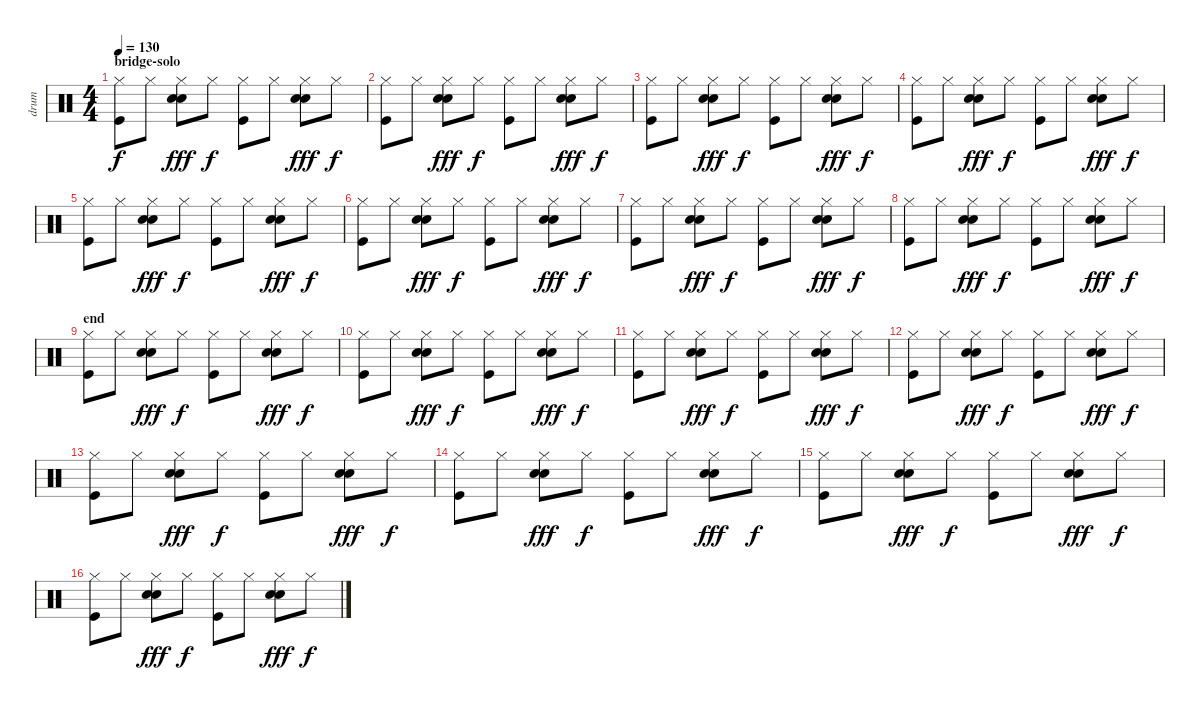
\track ("drum" "drum") {instrument percussion}
\staff {score}
\articulation defaults
\ts (4 4)
\section ("" "bridge-solo")
\tempo 130
\clef neutral
\ks c
("Hi-Hat (closed)" "Kick (hit)").8{dy f} "Hi-Hat (closed)".8 ("Hi-Hat (closed)" "Snare (hit) 2" "Snare (hit) 2").8{dy fff} "Hi-Hat (closed)".8{dy f} ("Hi-Hat (closed)" "Kick (hit)").8 "Hi-Hat (closed)".8 ("Hi-Hat (closed)" "Snare (hit) 2" "Snare (hit) 2").8{dy fff} "Hi-Hat (closed)".8{dy f} |
("Hi-Hat (closed)" "Kick (hit)").8 "Hi-Hat (closed)".8 ("Hi-Hat (closed)" "Snare (hit) 2" "Snare (hit) 2").8{dy fff} "Hi-Hat (closed)".8{dy f} ("Hi-Hat (closed)" "Kick (hit)").8 "Hi-Hat (closed)".8 ("Hi-Hat (closed)" "Snare (hit) 2" "Snare (hit) 2").8{dy fff} "Hi-Hat (closed)".8{dy f} |
("Hi-Hat (closed)" "Kick (hit)").8 "Hi-Hat (closed)".8 ("Hi-Hat (closed)" "Snare (hit) 2" "Snare (hit) 2").8{dy fff} "Hi-Hat (closed)".8{dy f} ("Hi-Hat (closed)" "Kick (hit)").8 "Hi-Hat (closed)".8 ("Hi-Hat (closed)" "Snare (hit) 2" "Snare (hit) 2").8{dy fff} "Hi-Hat (closed)".8{dy f} |
("Hi-Hat (closed)" "Kick (hit)").8 "Hi-Hat (closed)".8 ("Hi-Hat (closed)" "Snare (hit) 2" "Snare (hit) 2").8{dy fff} "Hi-Hat (closed)".8{dy f} ("Hi-Hat (closed)" "Kick (hit)").8 "Hi-Hat (closed)".8 ("Hi-Hat (closed)" "Snare (hit) 2" "Snare (hit) 2").8{dy fff} "Hi-Hat (closed)".8{dy f} |
("Hi-Hat (closed)" "Kick (hit)").8 "Hi-Hat (closed)".8 ("Hi-Hat (closed)" "Snare (hit) 2" "Snare (hit) 2").8{dy fff} "Hi-Hat (closed)".8{dy f} ("Hi-Hat (closed)" "Kick (hit)").8 "Hi-Hat (closed)".8 ("Hi-Hat (closed)" "Snare (hit) 2" "Snare (hit) 2").8{dy fff} "Hi-Hat (closed)".8{dy f} |
("Hi-Hat (closed)" "Kick (hit)").8 "Hi-Hat (closed)".8 ("Hi-Hat (closed)" "Snare (hit) 2" "Snare (hit) 2").8{dy fff} "Hi-Hat (closed)".8{dy f} ("Hi-Hat (closed)" "Kick (hit)").8 "Hi-Hat (closed)".8 ("Hi-Hat (closed)" "Snare (hit) 2" "Snare (hit) 2").8{dy fff} "Hi-Hat (closed)".8{dy f} |
("Hi-Hat (closed)" "Kick (hit)").8 "Hi-Hat (closed)".8 ("Hi-Hat (closed)" "Snare (hit) 2" "Snare (hit) 2").8{dy fff} "Hi-Hat (closed)".8{dy f} ("Hi-Hat (closed)" "Kick (hit)").8 "Hi-Hat (closed)".8 ("Hi-Hat (closed)" "Snare (hit) 2" "Snare (hit) 2").8{dy fff} "Hi-Hat (closed)".8{dy f} |
("Hi-Hat (closed)" "Kick (hit)").8 "Hi-Hat (closed)".8 ("Hi-Hat (closed)" "Snare (hit) 2" "Snare (hit) 2").8{dy fff} "Hi-Hat (closed)".8{dy f} ("Hi-Hat (closed)" "Kick (hit)").8 "Hi-Hat (closed)".8 ("Hi-Hat (closed)" "Snare (hit) 2" "Snare (hit) 2").8{dy fff} "Hi-Hat (closed)".8{dy f} |
\section ("" "end")
("Hi-Hat (closed)" "Kick (hit)").8 "Hi-Hat (closed)".8 ("Hi-Hat (closed)" "Snare (hit) 2" "Snare (hit) 2").8{dy fff} "Hi-Hat (closed)".8{dy f} ("Hi-Hat (closed)" "Kick (hit)").8 "Hi-Hat (closed)".8 ("Hi-Hat (closed)" "Snare (hit) 2" "Snare (hit) 2").8{dy fff} "Hi-Hat (closed)".8{dy f} |
("Hi-Hat (closed)" "Kick (hit)").8 "Hi-Hat (closed)".8 ("Hi-Hat (closed)" "Snare (hit) 2" "Snare (hit) 2").8{dy fff} "Hi-Hat (closed)".8{dy f} ("Hi-Hat (closed)" "Kick (hit)").8 "Hi-Hat (closed)".8 ("Hi-Hat (closed)" "Snare (hit) 2" "Snare (hit) 2").8{dy fff} "Hi-Hat (closed)".8{dy f} |
("Hi-Hat (closed)" "Kick (hit)").8 "Hi-Hat (closed)".8 ("Hi-Hat (closed)" "Snare (hit) 2" "Snare (hit) 2").8{dy fff} "Hi-Hat (closed)".8{dy f} ("Hi-Hat (closed)" "Kick (hit)").8 "Hi-Hat (closed)".8 ("Hi-Hat (closed)" "Snare (hit) 2" "Snare (hit) 2").8{dy fff} "Hi-Hat (closed)".8{dy f} |
("Hi-Hat (closed)" "Kick (hit)").8 "Hi-Hat (closed)".8 ("Hi-Hat (closed)" "Snare (hit) 2" "Snare (hit) 2").8{dy fff} "Hi-Hat (closed)".8{dy f} ("Hi-Hat (closed)" "Kick (hit)").8 "Hi-Hat (closed)".8 ("Hi-Hat (closed)" "Snare (hit) 2" "Snare (hit) 2").8{dy fff} "Hi-Hat (closed)".8{dy f} |
("Hi-Hat (closed)" "Kick (hit)").8 "Hi-Hat (closed)".8 ("Hi-Hat (closed)" "Snare (hit) 2" "Snare (hit) 2").8{dy fff} "Hi-Hat (closed)".8{dy f} ("Hi-Hat (closed)" "Kick (hit)").8 "Hi-Hat (closed)".8 ("Hi-Hat (closed)" "Snare (hit) 2" "Snare (hit) 2").8{dy fff} "Hi-Hat (closed)".8{dy f} |
("Hi-Hat (closed)" "Kick (hit)").8 "Hi-Hat (closed)".8 ("Hi-Hat (closed)" "Snare (hit) 2" "Snare (hit) 2").8{dy fff} "Hi-Hat (closed)".8{dy f} ("Hi-Hat (closed)" "Kick (hit)").8 "Hi-Hat (closed)".8 ("Hi-Hat (closed)" "Snare (hit) 2" "Snare (hit) 2").8{dy fff} "Hi-Hat (closed)".8{dy f} |
("Hi-Hat (closed)" "Kick (hit)").8 "Hi-Hat (closed)".8 ("Hi-Hat (closed)" "Snare (hit) 2" "Snare (hit) 2").8{dy fff} "Hi-Hat (closed)".8{dy f} ("Hi-Hat (closed)" "Kick (hit)").8 "Hi-Hat (closed)".8 ("Hi-Hat (closed)" "Snare (hit) 2" "Snare (hit) 2").8{dy fff} "Hi-Hat (closed)".8{dy f} |
("Hi-Hat (closed)" "Kick (hit)").8 "Hi-Hat (closed)".8 ("Hi-Hat (closed)" "Snare (hit) 2" "Snare (hit) 2").8{dy fff} "Hi-Hat (closed)".8{dy f} ("Hi-Hat (closed)" "Kick (hit)").8 "Hi-Hat (closed)".8 ("Hi-Hat (closed)" "Snare (hit) 2" "Snare (hit) 2").8{dy fff} "Hi-Hat (closed)".8{dy f}
